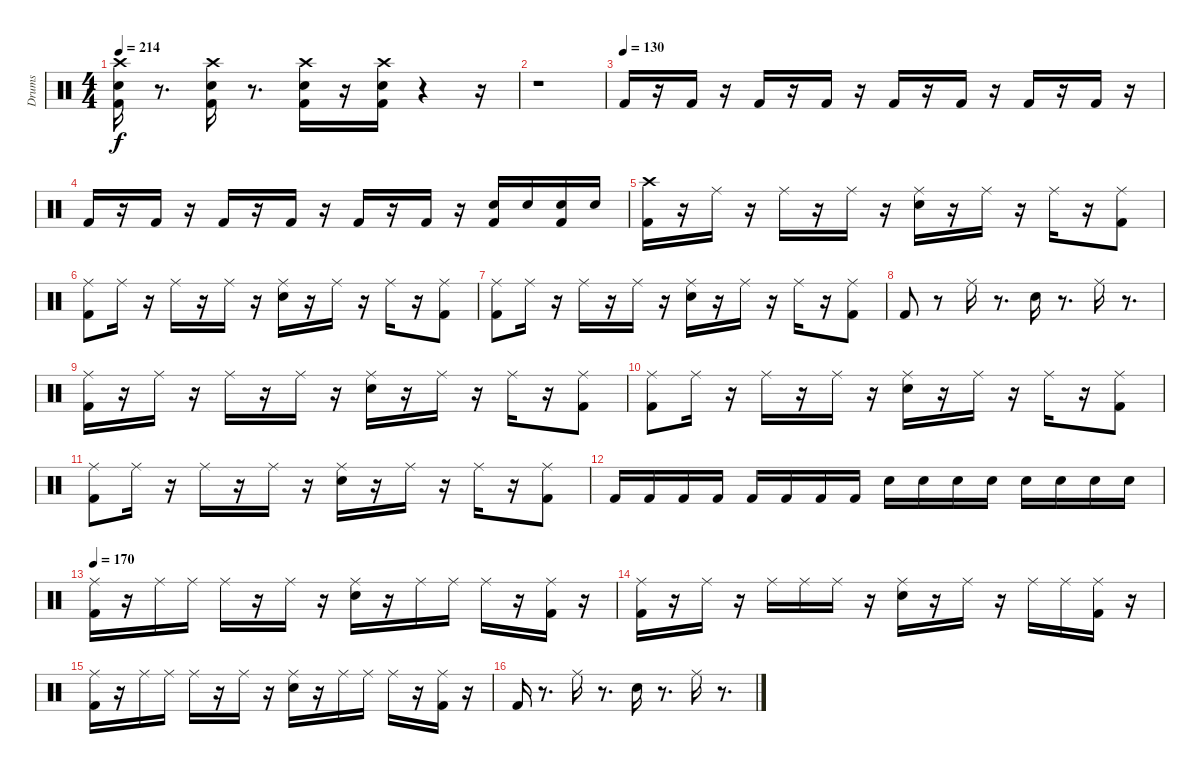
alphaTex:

\track ("Drums               " "Drums     ") {instrument percussion}
\staff {score}
\articulation defaults
\ts (4 4)
\tempo 214
\clef neutral
\ks c
("Kick (hit) 2" "Snare (hit) 2" "Crash high (hit)").16{dy f} r.8{d} ("Kick (hit) 2" "Snare (hit) 2" "Crash high (hit)").16 r.8{d} ("Kick (hit) 2" "Snare (hit) 2" "Crash high (hit)").16 r.16 ("Kick (hit) 2" "Snare (hit) 2" "Crash high (hit)").16 r.4 r.16 |
r.1 |
\tempo (130)
"Kick (hit) 2".16 r.16 "Kick (hit) 2".16 r.16 "Kick (hit) 2".16 r.16 "Kick (hit) 2".16 r.16 "Kick (hit) 2".16 r.16 "Kick (hit) 2".16 r.16 "Kick (hit) 2".16 r.16 "Kick (hit) 2".16 r.16 |
"Kick (hit) 2".16 r.16 "Kick (hit) 2".16 r.16 "Kick (hit) 2".16 r.16 "Kick (hit) 2".16 r.16 "Kick (hit) 2".16 r.16 "Kick (hit) 2".16 r.16 ("Kick (hit) 2" "Snare (hit) 2").16 "Snare (hit) 2".16 ("Kick (hit) 2" "Snare (hit) 2").16 "Snare (hit) 2".16 |
("Kick (hit) 2" "Crash high (hit)").16 r.16 "Ride (middle)".16 r.16 "Ride (middle)".16 r.16 "Ride (middle)".16 r.16 ("Snare (hit) 2" "Ride (middle)").16 r.16 "Ride (middle)".16 r.16 "Ride (middle)".16 r.16 ("Kick (hit) 2" "Ride (middle)").8 |
("Kick (hit) 2" "Ride (middle)").8 "Ride (middle)".16 r.16 "Ride (middle)".16 r.16 "Ride (middle)".16 r.16 ("Snare (hit) 2" "Ride (middle)").16 r.16 "Ride (middle)".16 r.16 "Ride (middle)".16 r.16 ("Kick (hit) 2" "Ride (middle)").8 |
("Kick (hit) 2" "Ride (middle)").8 "Ride (middle)".16 r.16 "Ride (middle)".16 r.16 "Ride (middle)".16 r.16 ("Snare (hit) 2" "Ride (middle)").16 r.16 "Ride (middle)".16 r.16 "Ride (middle)".16 r.16 ("Kick (hit) 2" "Ride (middle)").8 |
"Kick (hit) 2".8 r.8 "Ride (middle)".16 r.8{d} "Snare (hit) 2".16 r.8{d} "Ride (middle)".16 r.8{d} |
("Kick (hit) 2" "Ride (middle)").16 r.16 "Ride (middle)".16 r.16 "Ride (middle)".16 r.16 "Ride (middle)".16 r.16 ("Snare (hit) 2" "Ride (middle)").16 r.16 "Ride (middle)".16 r.16 "Ride (middle)".16 r.16 ("Kick (hit) 2" "Ride (middle)").8 |
("Kick (hit) 2" "Ride (middle)").8 "Ride (middle)".16 r.16 "Ride (middle)".16 r.16 "Ride (middle)".16 r.16 ("Snare (hit) 2" "Ride (middle)").16 r.16 "Ride (middle)".16 r.16 "Ride (middle)".16 r.16 ("Kick (hit) 2" "Ride (middle)").8 |
("Kick (hit) 2" "Ride (middle)").8 "Ride (middle)".16 r.16 "Ride (middle)".16 r.16 "Ride (middle)".16 r.16 ("Snare (hit) 2" "Ride (middle)").16 r.16 "Ride (middle)".16 r.16 "Ride (middle)".16 r.16 ("Kick (hit) 2" "Ride (middle)").8 |
"Kick (hit) 2".16 "Kick (hit) 2".16 "Kick (hit) 2".16 "Kick (hit) 2".16 "Kick (hit) 2".16 "Kick (hit) 2".16 "Kick (hit) 2".16 "Kick (hit) 2".16 "Snare (hit) 2".16 "Snare (hit) 2".16 "Snare (hit) 2".16 "Snare (hit) 2".16 "Snare (hit) 2".16 "Snare (hit) 2".16 "Snare (hit) 2".16 "Snare (hit) 2".16 |
\tempo 170
("Kick (hit) 2" "Ride (middle)").16 r.16 "Ride (middle)".16 "Ride (middle)".16 "Ride (middle)".16 r.16 "Ride (middle)".16 r.16 ("Snare (hit) 2" "Ride (middle)").16 r.16 "Ride (middle)".16 "Ride (middle)".16 "Ride (middle)".16 r.16 ("Kick (hit) 2" "Ride (middle)").16 r.16 |
("Kick (hit) 2" "Ride (middle)").16 r.16 "Ride (middle)".16 r.16 "Ride (middle)".16 "Ride (middle)".16 "Ride (middle)".16 r.16 ("Snare (hit) 2" "Ride (middle)").16 r.16 "Ride (middle)".16 r.16 "Ride (middle)".16 "Ride (middle)".16 ("Ride (middle)" "Kick (hit) 2").16 r.16 |
("Kick (hit) 2" "Ride (middle)").16 r.16 "Ride (middle)".16 "Ride (middle)".16 "Ride (middle)".16 r.16 "Ride (middle)".16 r.16 ("Snare (hit) 2" "Ride (middle)").16 r.16 "Ride (middle)".16 "Ride (middle)".16 "Ride (middle)".16 r.16 ("Kick (hit) 2" "Ride (middle)").16 r.16 |
"Kick (hit) 2".16 r.8{d} "Ride (middle)".16 r.8{d} "Snare (hit) 2".16 r.8{d} "Ride (middle)".16 r.8{d}
